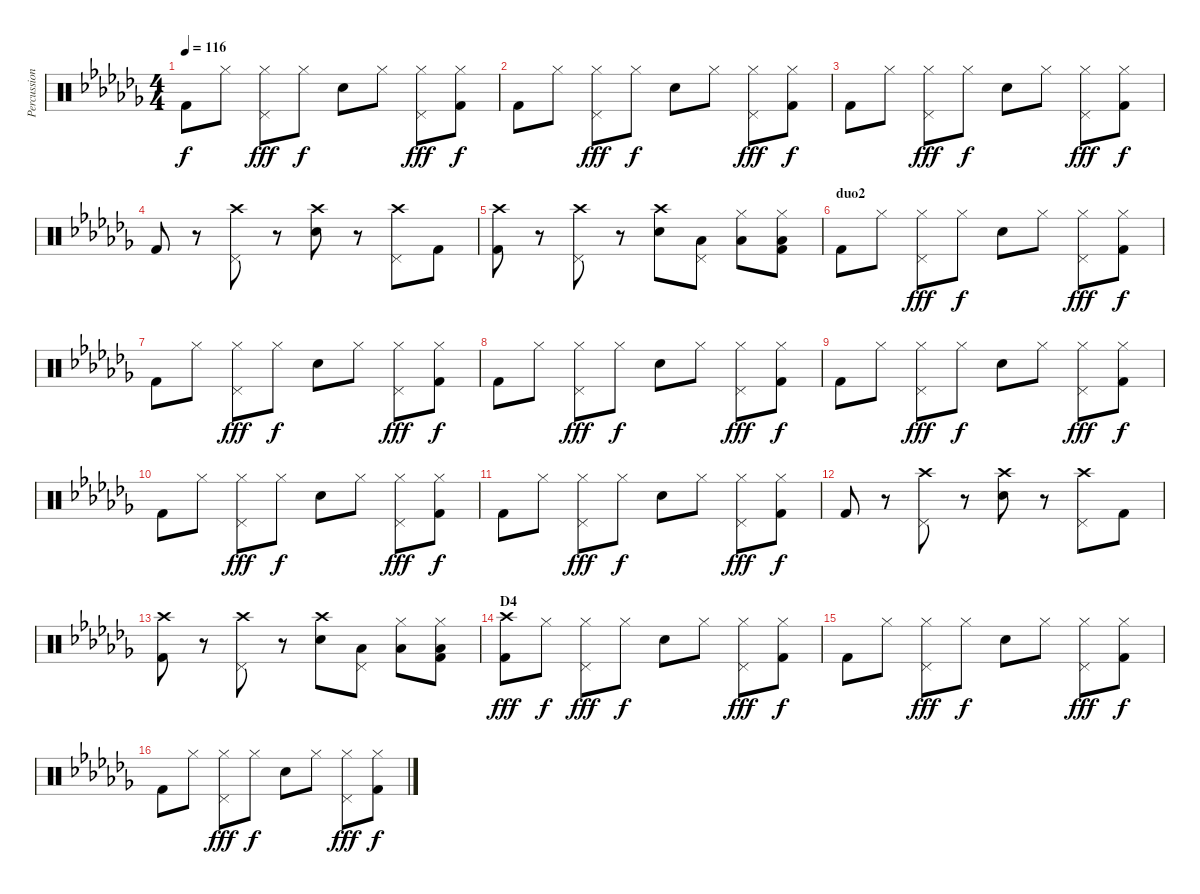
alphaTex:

\track ("Percussions" "Percussion") {instrument percussion}
\staff {score}
\articulation defaults
\ts (4 4)
\tempo 116
\clef neutral
\ks abminor "Kick (hit) 2".8{dy f} "Hi-Hat (closed)".8
("Hi-Hat (closed)" "Pedal Hi-Hat (hit)").8{dy fff} "Hi-Hat (closed)".8{dy f} "Snare (hit) 2".8 "Hi-Hat (closed)".8 ("Hi-Hat (closed)" "Pedal Hi-Hat (hit)").8{dy fff} ("Hi-Hat (closed)" "Kick (hit) 2").8{dy f} |
"Kick (hit) 2".8 "Hi-Hat (closed)".8 ("Hi-Hat (closed)" "Pedal Hi-Hat (hit)").8{dy fff} "Hi-Hat (closed)".8{dy f} "Snare (hit) 2".8 "Hi-Hat (closed)".8 ("Hi-Hat (closed)" "Pedal Hi-Hat (hit)").8{dy fff} ("Hi-Hat (closed)" "Kick (hit) 2").8{dy f} |
"Kick (hit) 2".8 "Hi-Hat (closed)".8 ("Hi-Hat (closed)" "Pedal Hi-Hat (hit)").8{dy fff} "Hi-Hat (closed)".8{dy f} "Snare (hit) 2".8 "Hi-Hat (closed)".8 ("Hi-Hat (closed)" "Pedal Hi-Hat (hit)").8{dy fff} ("Hi-Hat (closed)" "Kick (hit) 2").8{dy f} |
"Kick (hit) 2".8 r.8 ("Crash high (hit)" "Pedal Hi-Hat (hit)").8 r.8 ("Crash high (hit)" "Snare (hit) 2").8 r.8 ("Crash high (hit)" "Pedal Hi-Hat (hit)").8 "Kick (hit) 2".8 |
("Crash high (hit)" "Kick (hit) 2").8 r.8 ("Crash high (hit)" "Pedal Hi-Hat (hit)").8 r.8 ("Crash high (hit)" "Snare (hit) 2").8 ("Pedal Hi-Hat (hit)" "Low Floor Tom (hit)").8 ("Hi-Hat (closed)" "Low Tom (hit)").8 ("Hi-Hat (closed)" "Low Floor Tom (hit)" "Kick (hit) 2").8 |
\section ("" "duo2")
"Kick (hit) 2".8 "Hi-Hat (closed)".8 ("Hi-Hat (closed)" "Pedal Hi-Hat (hit)").8{dy fff} "Hi-Hat (closed)".8{dy f} "Snare (hit) 2".8 "Hi-Hat (closed)".8 ("Hi-Hat (closed)" "Pedal Hi-Hat (hit)").8{dy fff} ("Hi-Hat (closed)" "Kick (hit) 2").8{dy f} |
"Kick (hit) 2".8 "Hi-Hat (closed)".8 ("Hi-Hat (closed)" "Pedal Hi-Hat (hit)").8{dy fff} "Hi-Hat (closed)".8{dy f} "Snare (hit) 2".8 "Hi-Hat (closed)".8 ("Hi-Hat (closed)" "Pedal Hi-Hat (hit)").8{dy fff} ("Hi-Hat (closed)" "Kick (hit) 2").8{dy f} |
"Kick (hit) 2".8 "Hi-Hat (closed)".8 ("Hi-Hat (closed)" "Pedal Hi-Hat (hit)").8{dy fff} "Hi-Hat (closed)".8{dy f} "Snare (hit) 2".8 "Hi-Hat (closed)".8 ("Hi-Hat (closed)" "Pedal Hi-Hat (hit)").8{dy fff} ("Hi-Hat (closed)" "Kick (hit) 2").8{dy f} |
"Kick (hit) 2".8 "Hi-Hat (closed)".8 ("Hi-Hat (closed)" "Pedal Hi-Hat (hit)").8{dy fff} "Hi-Hat (closed)".8{dy f} "Snare (hit) 2".8 "Hi-Hat (closed)".8 ("Hi-Hat (closed)" "Pedal Hi-Hat (hit)").8{dy fff} ("Hi-Hat (closed)" "Kick (hit) 2").8{dy f} |
"Kick (hit) 2".8 "Hi-Hat (closed)".8 ("Hi-Hat (closed)" "Pedal Hi-Hat (hit)").8{dy fff} "Hi-Hat (closed)".8{dy f} "Snare (hit) 2".8 "Hi-Hat (closed)".8 ("Hi-Hat (closed)" "Pedal Hi-Hat (hit)").8{dy fff} ("Hi-Hat (closed)" "Kick (hit) 2").8{dy f} |
"Kick (hit) 2".8 "Hi-Hat (closed)".8 ("Hi-Hat (closed)" "Pedal Hi-Hat (hit)").8{dy fff} "Hi-Hat (closed)".8{dy f} "Snare (hit) 2".8 "Hi-Hat (closed)".8 ("Hi-Hat (closed)" "Pedal Hi-Hat (hit)").8{dy fff} ("Hi-Hat (closed)" "Kick (hit) 2").8{dy f} |
"Kick (hit) 2".8 r.8 ("Crash high (hit)" "Pedal Hi-Hat (hit)").8 r.8 ("Crash high (hit)" "Snare (hit) 2").8 r.8 ("Crash high (hit)" "Pedal Hi-Hat (hit)").8 "Kick (hit) 2".8 |
("Crash high (hit)" "Kick (hit) 2").8 r.8 ("Crash high (hit)" "Pedal Hi-Hat (hit)").8 r.8 ("Crash high (hit)" "Snare (hit) 2").8 ("Pedal Hi-Hat (hit)" "Low Floor Tom (hit)").8 ("Hi-Hat (closed)" "Low Tom (hit)").8 ("Hi-Hat (closed)" "Low Floor Tom (hit)" "Kick (hit) 2").8 |
\section ("" "D4")
("Crash high (hit)" "Kick (hit) 2").8{dy fff} "Hi-Hat (closed)".8{dy f} ("Hi-Hat (closed)" "Pedal Hi-Hat (hit)").8{dy fff} "Hi-Hat (closed)".8{dy f} "Snare (hit) 2".8 "Hi-Hat (closed)".8 ("Hi-Hat (closed)" "Pedal Hi-Hat (hit)").8{dy fff} ("Hi-Hat (closed)" "Kick (hit) 2").8{dy f} |
"Kick (hit) 2".8 "Hi-Hat (closed)".8 ("Hi-Hat (closed)" "Pedal Hi-Hat (hit)").8{dy fff} "Hi-Hat (closed)".8{dy f} "Snare (hit) 2".8 "Hi-Hat (closed)".8 ("Hi-Hat (closed)" "Pedal Hi-Hat (hit)").8{dy fff} ("Hi-Hat (closed)" "Kick (hit) 2").8{dy f} |
"Kick (hit) 2".8 "Hi-Hat (closed)".8 ("Hi-Hat (closed)" "Pedal Hi-Hat (hit)").8{dy fff} "Hi-Hat (closed)".8{dy f} "Snare (hit) 2".8 "Hi-Hat (closed)".8 ("Hi-Hat (closed)" "Pedal Hi-Hat (hit)").8{dy fff} ("Hi-Hat (closed)" "Kick (hit) 2").8{dy f}
